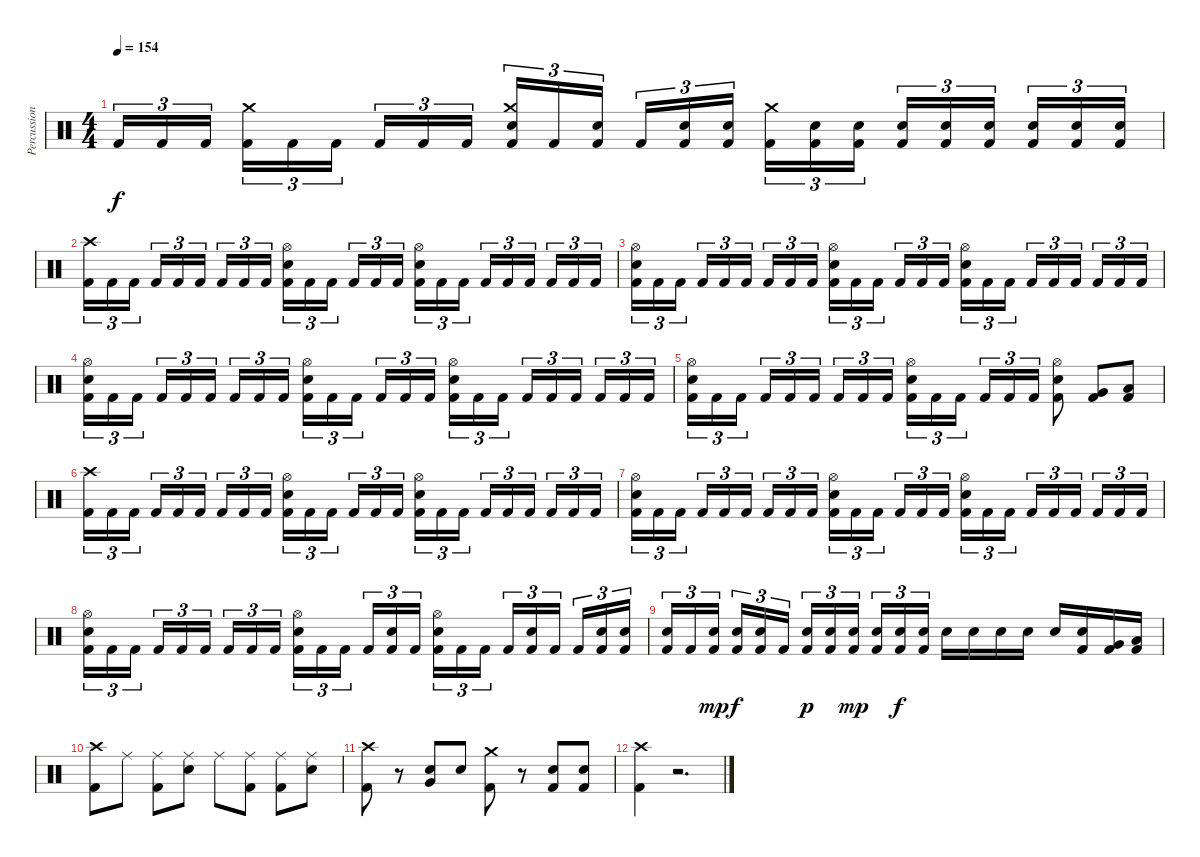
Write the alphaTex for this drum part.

\track ("Percussion" "Percussion") {instrument percussion}
\staff {score}
\articulation defaults
\ts (4 4)
\tempo 154
\clef neutral
\ks c "Kick (hit) 2".16{tu (3 2) dy f} "Kick (hit) 2".16{tu (3 2)} "Kick (hit) 2".16{tu (3 2) beam splitsecondary}
("Crash medium (hit)" "Kick (hit) 2").16{tu (3 2)} "Kick (hit) 2".16{tu (3 2)} "Kick (hit) 2".16{tu (3 2)} "Kick (hit) 2".16{tu (3 2)} "Kick (hit) 2".16{tu (3 2)} "Kick (hit) 2".16{tu (3 2) beam splitsecondary} ("Crash medium (hit)" "Electric Snare (hit)" "Kick (hit) 2").16{tu (3 2)} "Kick (hit) 2".16{tu (3 2)} ("Electric Snare (hit)" "Kick (hit) 2").16{tu (3 2)} "Kick (hit) 2".16{tu (3 2)} ("Electric Snare (hit)" "Kick (hit) 2").16{tu (3 2)} ("Electric Snare (hit)" "Kick (hit) 2").16{tu (3 2) beam splitsecondary} ("Crash medium (hit)" "Kick (hit) 2").16{tu (3 2)} ("Electric Snare (hit)" "Kick (hit) 2").16{tu (3 2)} ("Electric Snare (hit)" "Kick (hit) 2").16{tu (3 2)} ("Electric Snare (hit)" "Kick (hit) 2").16{tu (3 2)} ("Electric Snare (hit)" "Kick (hit) 2").16{tu (3 2)} ("Electric Snare (hit)" "Kick (hit) 2").16{tu (3 2) beam splitsecondary} ("Electric Snare (hit)" "Kick (hit) 2").16{tu (3 2)} ("Electric Snare (hit)" "Kick (hit) 2").16{tu (3 2)} ("Electric Snare (hit)" "Kick (hit) 2").16{tu (3 2)} |
("Crash high (hit)" "Kick (hit) 2").16{tu (3 2)} "Kick (hit) 2".16{tu (3 2)} "Kick (hit) 2".16{tu (3 2) beam splitsecondary} "Kick (hit) 2".16{tu (3 2)} "Kick (hit) 2".16{tu (3 2)} "Kick (hit) 2".16{tu (3 2)} "Kick (hit) 2".16{tu (3 2)} "Kick (hit) 2".16{tu (3 2)} "Kick (hit) 2".16{tu (3 2) beam splitsecondary} ("Hi-Hat (open)" "Electric Snare (hit)" "Kick (hit) 2").16{tu (3 2)} "Kick (hit) 2".16{tu (3 2)} "Kick (hit) 2".16{tu (3 2)} "Kick (hit) 2".16{tu (3 2)} "Kick (hit) 2".16{tu (3 2)} "Kick (hit) 2".16{tu (3 2) beam splitsecondary} ("Hi-Hat (open)" "Electric Snare (hit)" "Kick (hit) 2").16{tu (3 2)} "Kick (hit) 2".16{tu (3 2)} "Kick (hit) 2".16{tu (3 2)} "Kick (hit) 2".16{tu (3 2)} "Kick (hit) 2".16{tu (3 2)} "Kick (hit) 2".16{tu (3 2) beam splitsecondary} "Kick (hit) 2".16{tu (3 2)} "Kick (hit) 2".16{tu (3 2)} "Kick (hit) 2".16{tu (3 2)} |
("Hi-Hat (open)" "Electric Snare (hit)" "Kick (hit) 2").16{tu (3 2)} "Kick (hit) 2".16{tu (3 2)} "Kick (hit) 2".16{tu (3 2) beam splitsecondary} "Kick (hit) 2".16{tu (3 2)} "Kick (hit) 2".16{tu (3 2)} "Kick (hit) 2".16{tu (3 2)} "Kick (hit) 2".16{tu (3 2)} "Kick (hit) 2".16{tu (3 2)} "Kick (hit) 2".16{tu (3 2) beam splitsecondary} ("Hi-Hat (open)" "Electric Snare (hit)" "Kick (hit) 2").16{tu (3 2)} "Kick (hit) 2".16{tu (3 2)} "Kick (hit) 2".16{tu (3 2)} "Kick (hit) 2".16{tu (3 2)} "Kick (hit) 2".16{tu (3 2)} "Kick (hit) 2".16{tu (3 2) beam splitsecondary} ("Hi-Hat (open)" "Electric Snare (hit)" "Kick (hit) 2").16{tu (3 2)} "Kick (hit) 2".16{tu (3 2)} "Kick (hit) 2".16{tu (3 2)} "Kick (hit) 2".16{tu (3 2)} "Kick (hit) 2".16{tu (3 2)} "Kick (hit) 2".16{tu (3 2) beam splitsecondary} "Kick (hit) 2".16{tu (3 2)} "Kick (hit) 2".16{tu (3 2)} "Kick (hit) 2".16{tu (3 2)} |
("Hi-Hat (open)" "Electric Snare (hit)" "Kick (hit) 2").16{tu (3 2)} "Kick (hit) 2".16{tu (3 2)} "Kick (hit) 2".16{tu (3 2) beam splitsecondary} "Kick (hit) 2".16{tu (3 2)} "Kick (hit) 2".16{tu (3 2)} "Kick (hit) 2".16{tu (3 2)} "Kick (hit) 2".16{tu (3 2)} "Kick (hit) 2".16{tu (3 2)} "Kick (hit) 2".16{tu (3 2) beam splitsecondary} ("Hi-Hat (open)" "Electric Snare (hit)" "Kick (hit) 2").16{tu (3 2)} "Kick (hit) 2".16{tu (3 2)} "Kick (hit) 2".16{tu (3 2)} "Kick (hit) 2".16{tu (3 2)} "Kick (hit) 2".16{tu (3 2)} "Kick (hit) 2".16{tu (3 2) beam splitsecondary} ("Hi-Hat (open)" "Electric Snare (hit)" "Kick (hit) 2").16{tu (3 2)} "Kick (hit) 2".16{tu (3 2)} "Kick (hit) 2".16{tu (3 2)} "Kick (hit) 2".16{tu (3 2)} "Kick (hit) 2".16{tu (3 2)} "Kick (hit) 2".16{tu (3 2) beam splitsecondary} "Kick (hit) 2".16{tu (3 2)} "Kick (hit) 2".16{tu (3 2)} "Kick (hit) 2".16{tu (3 2)} |
("Hi-Hat (open)" "Electric Snare (hit)" "Kick (hit) 2").16{tu (3 2)} "Kick (hit) 2".16{tu (3 2)} "Kick (hit) 2".16{tu (3 2) beam splitsecondary} "Kick (hit) 2".16{tu (3 2)} "Kick (hit) 2".16{tu (3 2)} "Kick (hit) 2".16{tu (3 2)} "Kick (hit) 2".16{tu (3 2)} "Kick (hit) 2".16{tu (3 2)} "Kick (hit) 2".16{tu (3 2) beam splitsecondary} ("Hi-Hat (open)" "Electric Snare (hit)" "Kick (hit) 2").16{tu (3 2)} "Kick (hit) 2".16{tu (3 2)} "Kick (hit) 2".16{tu (3 2)} "Kick (hit) 2".16{tu (3 2)} "Kick (hit) 2".16{tu (3 2)} "Kick (hit) 2".16{tu (3 2)} ("Hi-Hat (open)" "Electric Snare (hit)" "Kick (hit) 2").8 ("Very Low Tom (hit)" "Kick (hit) 2").8 ("Low Floor Tom (hit)" "Kick (hit) 2").8 |
("Crash high (hit)" "Kick (hit) 2").16{tu (3 2)} "Kick (hit) 2".16{tu (3 2)} "Kick (hit) 2".16{tu (3 2) beam splitsecondary} "Kick (hit) 2".16{tu (3 2)} "Kick (hit) 2".16{tu (3 2)} "Kick (hit) 2".16{tu (3 2)} "Kick (hit) 2".16{tu (3 2)} "Kick (hit) 2".16{tu (3 2)} "Kick (hit) 2".16{tu (3 2) beam splitsecondary} ("Hi-Hat (open)" "Electric Snare (hit)" "Kick (hit) 2").16{tu (3 2)} "Kick (hit) 2".16{tu (3 2)} "Kick (hit) 2".16{tu (3 2)} "Kick (hit) 2".16{tu (3 2)} "Kick (hit) 2".16{tu (3 2)} "Kick (hit) 2".16{tu (3 2) beam splitsecondary} ("Hi-Hat (open)" "Electric Snare (hit)" "Kick (hit) 2").16{tu (3 2)} "Kick (hit) 2".16{tu (3 2)} "Kick (hit) 2".16{tu (3 2)} "Kick (hit) 2".16{tu (3 2)} "Kick (hit) 2".16{tu (3 2)} "Kick (hit) 2".16{tu (3 2) beam splitsecondary} "Kick (hit) 2".16{tu (3 2)} "Kick (hit) 2".16{tu (3 2)} "Kick (hit) 2".16{tu (3 2)} |
("Hi-Hat (open)" "Electric Snare (hit)" "Kick (hit) 2").16{tu (3 2)} "Kick (hit) 2".16{tu (3 2)} "Kick (hit) 2".16{tu (3 2) beam splitsecondary} "Kick (hit) 2".16{tu (3 2)} "Kick (hit) 2".16{tu (3 2)} "Kick (hit) 2".16{tu (3 2)} "Kick (hit) 2".16{tu (3 2)} "Kick (hit) 2".16{tu (3 2)} "Kick (hit) 2".16{tu (3 2) beam splitsecondary} ("Hi-Hat (open)" "Electric Snare (hit)" "Kick (hit) 2").16{tu (3 2)} "Kick (hit) 2".16{tu (3 2)} "Kick (hit) 2".16{tu (3 2)} "Kick (hit) 2".16{tu (3 2)} "Kick (hit) 2".16{tu (3 2)} "Kick (hit) 2".16{tu (3 2) beam splitsecondary} ("Hi-Hat (open)" "Electric Snare (hit)" "Kick (hit) 2").16{tu (3 2)} "Kick (hit) 2".16{tu (3 2)} "Kick (hit) 2".16{tu (3 2)} "Kick (hit) 2".16{tu (3 2)} "Kick (hit) 2".16{tu (3 2)} "Kick (hit) 2".16{tu (3 2) beam splitsecondary} "Kick (hit) 2".16{tu (3 2)} "Kick (hit) 2".16{tu (3 2)} "Kick (hit) 2".16{tu (3 2)} |
("Hi-Hat (open)" "Electric Snare (hit)" "Kick (hit) 2").16{tu (3 2)} "Kick (hit) 2".16{tu (3 2)} "Kick (hit) 2".16{tu (3 2) beam splitsecondary} "Kick (hit) 2".16{tu (3 2)} "Kick (hit) 2".16{tu (3 2)} "Kick (hit) 2".16{tu (3 2)} "Kick (hit) 2".16{tu (3 2)} "Kick (hit) 2".16{tu (3 2)} "Kick (hit) 2".16{tu (3 2) beam splitsecondary} ("Hi-Hat (open)" "Electric Snare (hit)" "Kick (hit) 2").16{tu (3 2)} "Kick (hit) 2".16{tu (3 2)} "Kick (hit) 2".16{tu (3 2)} "Kick (hit) 2".16{tu (3 2)} ("Electric Snare (hit)" "Kick (hit) 2").16{tu (3 2)} "Kick (hit) 2".16{tu (3 2) beam splitsecondary} ("Hi-Hat (open)" "Electric Snare (hit)" "Kick (hit) 2").16{tu (3 2)} "Kick (hit) 2".16{tu (3 2)} "Kick (hit) 2".16{tu (3 2)} "Kick (hit) 2".16{tu (3 2)} ("Electric Snare (hit)" "Kick (hit) 2").16{tu (3 2)} "Kick (hit) 2".16{tu (3 2) beam splitsecondary} "Kick (hit) 2".16{tu (3 2)} ("Electric Snare (hit)" "Kick (hit) 2").16{tu (3 2)} ("Electric Snare (hit)" "Kick (hit) 2").16{tu (3 2)} |
("Electric Snare (hit)" "Kick (hit) 2").16{tu (3 2)} "Kick (hit) 2".16{tu (3 2)} ("Electric Snare (hit)" "Kick (hit) 2").16{tu (3 2) dy mp beam splitsecondary} ("Electric Snare (hit)" "Kick (hit) 2").16{tu (3 2) dy f} ("Electric Snare (hit)" "Kick (hit) 2").16{tu (3 2)} "Kick (hit) 2".16{tu (3 2)} ("Electric Snare (hit)" "Kick (hit) 2").16{tu (3 2) dy p} ("Electric Snare (hit)" "Kick (hit) 2").16{tu (3 2)} ("Electric Snare (hit)" "Kick (hit) 2").16{tu (3 2) dy mp beam splitsecondary} ("Electric Snare (hit)" "Kick (hit) 2").16{tu (3 2)} ("Electric Snare (hit)" "Kick (hit) 2").16{tu (3 2) dy f} ("Electric Snare (hit)" "Kick (hit) 2").16{tu (3 2)} "Electric Snare (hit)".16 "Electric Snare (hit)".16 "Electric Snare (hit)".16 "Electric Snare (hit)".16 "Electric Snare (hit)".16 ("Electric Snare (hit)" "Kick (hit) 2").16 ("Very Low Tom (hit)" "Kick (hit) 2").16 ("Low Floor Tom (hit)" "Kick (hit) 2").16 |
("Crash high (hit)" "Kick (hit) 2").8 "Ride (middle)".8 ("Ride (middle)" "Kick (hit) 2").8 ("Ride (middle)" "Electric Snare (hit)").8 "Ride (middle)".8 ("Ride (middle)" "Kick (hit) 2").8 ("Ride (middle)" "Kick (hit) 2").8 ("Ride (middle)" "Electric Snare (hit)").8 |
("Crash high (hit)" "Kick (hit) 2").8 r.8 ("Electric Snare (hit)" "Very Low Tom (hit)").8 "Electric Snare (hit)".8 ("Crash medium (hit)" "Kick (hit) 2").8 r.8 ("Electric Snare (hit)" "Kick (hit) 2").8 ("Electric Snare (hit)" "Kick (hit) 2").8 |
("Crash high (hit)" "Kick (hit) 2").4 r.2{d}
